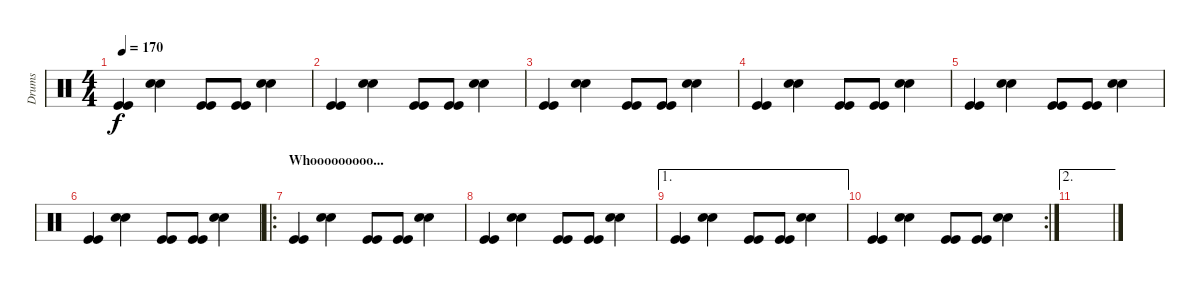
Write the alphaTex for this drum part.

\track ("Drums" "Drums") {instrument percussion}
\staff {score}
\articulation defaults
\ts (4 4)
\tempo 170
\clef neutral
\ks c
("Kick (hit)" "Kick (hit)").4{dy f} ("Snare (hit) 2" "Snare (hit) 2").4 ("Kick (hit)" "Kick (hit)").8 ("Kick (hit)" "Kick (hit)").8 ("Snare (hit) 2" "Snare (hit) 2").4 |
("Kick (hit)" "Kick (hit)").4 ("Snare (hit) 2" "Snare (hit) 2").4 ("Kick (hit)" "Kick (hit)").8 ("Kick (hit)" "Kick (hit)").8 ("Snare (hit) 2" "Snare (hit) 2").4 |
("Kick (hit)" "Kick (hit)").4 ("Snare (hit) 2" "Snare (hit) 2").4 ("Kick (hit)" "Kick (hit)").8 ("Kick (hit)" "Kick (hit)").8 ("Snare (hit) 2" "Snare (hit) 2").4 |
("Kick (hit)" "Kick (hit)").4 ("Snare (hit) 2" "Snare (hit) 2").4 ("Kick (hit)" "Kick (hit)").8 ("Kick (hit)" "Kick (hit)").8 ("Snare (hit) 2" "Snare (hit) 2").4 |
("Kick (hit)" "Kick (hit)").4 ("Snare (hit) 2" "Snare (hit) 2").4 ("Kick (hit)" "Kick (hit)").8 ("Kick (hit)" "Kick (hit)").8 ("Snare (hit) 2" "Snare (hit) 2").4 |
("Kick (hit)" "Kick (hit)").4 ("Snare (hit) 2" "Snare (hit) 2").4 ("Kick (hit)" "Kick (hit)").8 ("Kick (hit)" "Kick (hit)").8 ("Snare (hit) 2" "Snare (hit) 2").4 |
\ro
\section ("" "Whooooooooo...")
("Kick (hit)" "Kick (hit)").4 ("Snare (hit) 2" "Snare (hit) 2").4 ("Kick (hit)" "Kick (hit)").8 ("Kick (hit)" "Kick (hit)").8 ("Snare (hit) 2" "Snare (hit) 2").4 |
("Kick (hit)" "Kick (hit)").4 ("Snare (hit) 2" "Snare (hit) 2").4 ("Kick (hit)" "Kick (hit)").8 ("Kick (hit)" "Kick (hit)").8 ("Snare (hit) 2" "Snare (hit) 2").4 |
\ae 1
("Kick (hit)" "Kick (hit)").4 ("Snare (hit) 2" "Snare (hit) 2").4 ("Kick (hit)" "Kick (hit)").8 ("Kick (hit)" "Kick (hit)").8 ("Snare (hit) 2" "Snare (hit) 2").4 |
\rc 2
("Kick (hit)" "Kick (hit)").4 ("Snare (hit) 2" "Snare (hit) 2").4 ("Kick (hit)" "Kick (hit)").8 ("Kick (hit)" "Kick (hit)").8 ("Snare (hit) 2" "Snare (hit) 2").4 |
\ae 2
